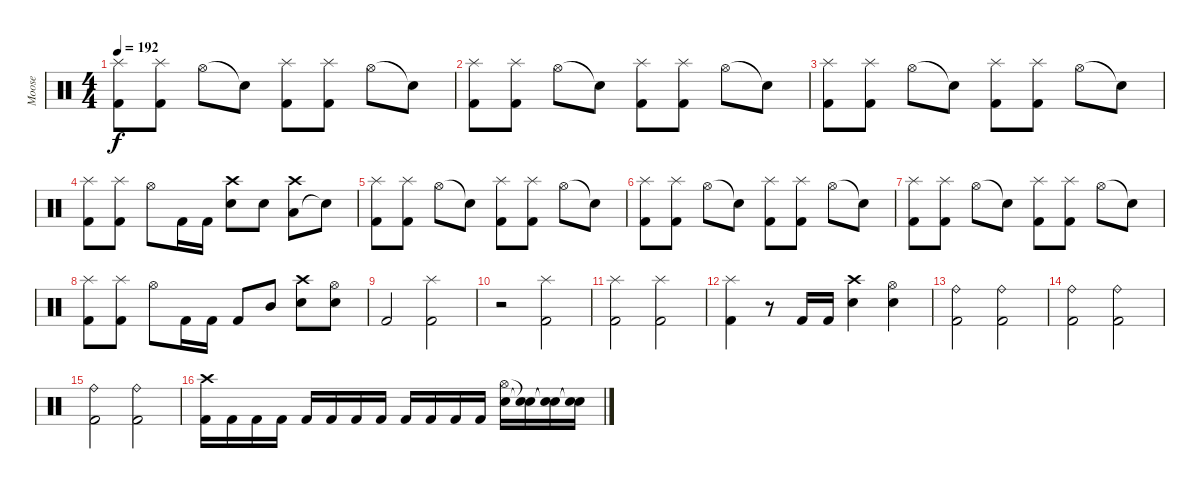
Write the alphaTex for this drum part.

\track ("Moose" "Moose") {instrument percussion}
\staff {score}
\articulation defaults
\ts (4 4)
\tempo 192
\clef neutral
\ks c
("Kick (hit) 2" "Splash (hit)").8{dy f} ("Kick (hit) 2" "Splash (hit)").8 "Hi-Hat (open)".8 "Snare (hit)"{t}.8 ("Kick (hit) 2" "Splash (hit)").8 ("Kick (hit) 2" "Splash (hit)").8 "Hi-Hat (open)".8 "Snare (hit)"{t}.8 |
("Kick (hit) 2" "Splash (hit)").8 ("Kick (hit) 2" "Splash (hit)").8 "Hi-Hat (open)".8 "Snare (hit)"{t}.8 ("Kick (hit) 2" "Splash (hit)").8 ("Kick (hit) 2" "Splash (hit)").8 "Hi-Hat (open)".8 "Snare (hit)"{t}.8 |
("Kick (hit) 2" "Splash (hit)").8 ("Kick (hit) 2" "Splash (hit)").8 "Hi-Hat (open)".8 "Snare (hit)"{t}.8 ("Kick (hit) 2" "Splash (hit)").8 ("Kick (hit) 2" "Splash (hit)").8 "Hi-Hat (open)".8 "Snare (hit)"{t}.8 |
("Kick (hit) 2" "Splash (hit)").8 ("Kick (hit) 2" "Splash (hit)").8 "Hi-Hat (open)".8 "Kick (hit) 2".16 "Kick (hit) 2".16 ("Electric Snare (hit)" "Crash high (hit)").8 "Electric Snare (hit)".8 ("Low Tom (hit)" "Crash high (hit)").8 "Snare (hit)"{t}.8 |
("Kick (hit) 2" "Splash (hit)").8 ("Kick (hit) 2" "Splash (hit)").8 "Hi-Hat (open)".8 "Snare (hit)"{t}.8 ("Kick (hit) 2" "Splash (hit)").8 ("Kick (hit) 2" "Splash (hit)").8 "Hi-Hat (open)".8 "Snare (hit)"{t}.8 |
("Kick (hit) 2" "Splash (hit)").8 ("Kick (hit) 2" "Splash (hit)").8 "Hi-Hat (open)".8 "Snare (hit)"{t}.8 ("Kick (hit) 2" "Splash (hit)").8 ("Kick (hit) 2" "Splash (hit)").8 "Hi-Hat (open)".8 "Snare (hit)"{t}.8 |
("Kick (hit) 2" "Splash (hit)").8 ("Kick (hit) 2" "Splash (hit)").8 "Hi-Hat (open)".8 "Snare (hit)"{t}.8 ("Kick (hit) 2" "Splash (hit)").8 ("Kick (hit) 2" "Splash (hit)").8 "Hi-Hat (open)".8 "Snare (hit)"{t}.8 |
("Kick (hit) 2" "Splash (hit)").8 ("Kick (hit) 2" "Splash (hit)").8 "Hi-Hat (open)".8 "Kick (hit) 2".16 "Kick (hit) 2".16 "Kick (hit) 2".8 "Mid Tom (hit)".8 ("Electric Snare (hit)" "Crash high (hit)").8 ("Electric Snare (hit)" "Hi-Hat (open)").8 |
"Kick (hit) 2".2 ("Kick (hit) 2" "Splash (hit)").2 |
r.2 ("Kick (hit) 2" "Splash (hit)").2 |
("Kick (hit) 2" "Splash (hit)").2 ("Kick (hit) 2" "Splash (hit)").2 |
("Kick (hit) 2" "Splash (hit)").4 r.8 "Kick (hit) 2".16 "Kick (hit) 2".16 ("Electric Snare (hit)" "Crash high (hit)").4 ("Snare (hit) 2" "Hi-Hat (open)").4 |
("Kick (hit) 2" "Ride (bell)").2 ("Kick (hit) 2" "Ride (bell)").2 |
("Kick (hit) 2" "Ride (bell)").2 ("Kick (hit) 2" "Ride (bell)").2 |
("Kick (hit) 2" "Ride (bell)").2 ("Kick (hit) 2" "Ride (bell)").2 |
("Kick (hit) 2" "Crash high (hit)").16 "Kick (hit) 2".16 "Kick (hit) 2".16 "Kick (hit) 2".16 "Kick (hit) 2".16 "Kick (hit) 2".16 "Kick (hit) 2".16 "Kick (hit) 2".16 "Kick (hit) 2".16 "Kick (hit) 2".16 "Kick (hit) 2".16 "Kick (hit) 2".16 ("Electric Snare (hit)" "Hi-Hat (open)").16 ("Snare (hit)"{t} "Snare (hit)"{t}).16 ("Snare (hit)"{t} "Snare (hit)"{t}).16 ("Snare (hit)"{t} "Snare (hit)"{t}).16
